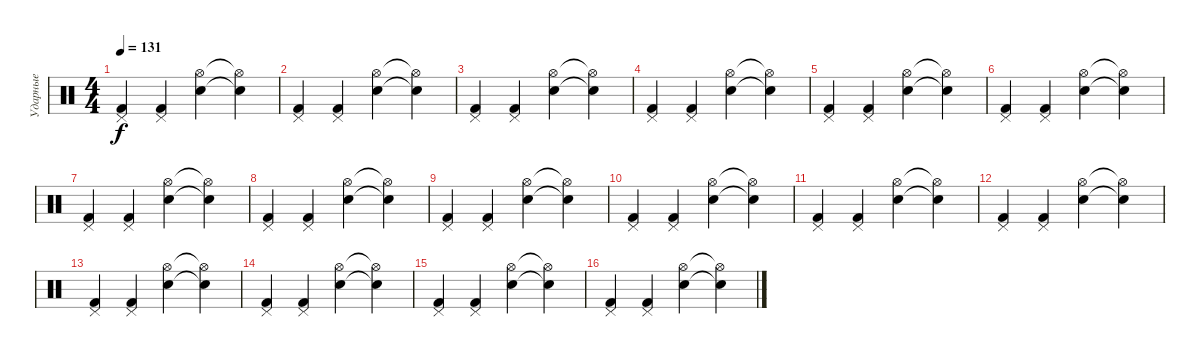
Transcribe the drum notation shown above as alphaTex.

\track ("Ударные" "Ударные") {instrument percussion}
\staff {score}
\articulation defaults
\ts (4 4)
\tempo 131
\clef neutral
\ks c
("Kick (hit) 2" "Pedal Hi-Hat (hit)").4{dy f} ("Kick (hit) 2" "Pedal Hi-Hat (hit)").4 ("Hi-Hat (open)" "Snare (hit) 2").4 ("Hi-Hat (open)"{t} "Snare (hit) 2"{t}).4 |
("Kick (hit) 2" "Pedal Hi-Hat (hit)").4 ("Kick (hit) 2" "Pedal Hi-Hat (hit)").4 ("Hi-Hat (open)" "Snare (hit) 2").4 ("Hi-Hat (open)"{t} "Snare (hit) 2"{t}).4 |
("Kick (hit) 2" "Pedal Hi-Hat (hit)").4 ("Kick (hit) 2" "Pedal Hi-Hat (hit)").4 ("Hi-Hat (open)" "Snare (hit) 2").4 ("Hi-Hat (open)"{t} "Snare (hit) 2"{t}).4 |
("Kick (hit) 2" "Pedal Hi-Hat (hit)").4 ("Kick (hit) 2" "Pedal Hi-Hat (hit)").4 ("Hi-Hat (open)" "Snare (hit) 2").4 ("Hi-Hat (open)"{t} "Snare (hit) 2"{t}).4 |
("Kick (hit) 2" "Pedal Hi-Hat (hit)").4 ("Kick (hit) 2" "Pedal Hi-Hat (hit)").4 ("Hi-Hat (open)" "Snare (hit) 2").4 ("Hi-Hat (open)"{t} "Snare (hit) 2"{t}).4 |
("Kick (hit) 2" "Pedal Hi-Hat (hit)").4 ("Kick (hit) 2" "Pedal Hi-Hat (hit)").4 ("Hi-Hat (open)" "Snare (hit) 2").4 ("Hi-Hat (open)"{t} "Snare (hit) 2"{t}).4 |
("Kick (hit) 2" "Pedal Hi-Hat (hit)").4 ("Kick (hit) 2" "Pedal Hi-Hat (hit)").4 ("Hi-Hat (open)" "Snare (hit) 2").4 ("Hi-Hat (open)"{t} "Snare (hit) 2"{t}).4 |
("Kick (hit) 2" "Pedal Hi-Hat (hit)").4 ("Kick (hit) 2" "Pedal Hi-Hat (hit)").4 ("Hi-Hat (open)" "Snare (hit) 2").4 ("Hi-Hat (open)"{t} "Snare (hit) 2"{t}).4 |
("Kick (hit) 2" "Pedal Hi-Hat (hit)").4 ("Kick (hit) 2" "Pedal Hi-Hat (hit)").4 ("Hi-Hat (open)" "Snare (hit) 2").4 ("Hi-Hat (open)"{t} "Snare (hit) 2"{t}).4 |
("Kick (hit) 2" "Pedal Hi-Hat (hit)").4 ("Kick (hit) 2" "Pedal Hi-Hat (hit)").4 ("Hi-Hat (open)" "Snare (hit) 2").4 ("Hi-Hat (open)"{t} "Snare (hit) 2"{t}).4 |
("Kick (hit) 2" "Pedal Hi-Hat (hit)").4 ("Kick (hit) 2" "Pedal Hi-Hat (hit)").4 ("Hi-Hat (open)" "Snare (hit) 2").4 ("Hi-Hat (open)"{t} "Snare (hit) 2"{t}).4 |
("Kick (hit) 2" "Pedal Hi-Hat (hit)").4 ("Kick (hit) 2" "Pedal Hi-Hat (hit)").4 ("Hi-Hat (open)" "Snare (hit) 2").4 ("Hi-Hat (open)"{t} "Snare (hit) 2"{t}).4 |
("Kick (hit) 2" "Pedal Hi-Hat (hit)").4 ("Kick (hit) 2" "Pedal Hi-Hat (hit)").4 ("Hi-Hat (open)" "Snare (hit) 2").4 ("Hi-Hat (open)"{t} "Snare (hit) 2"{t}).4 |
("Kick (hit) 2" "Pedal Hi-Hat (hit)").4 ("Kick (hit) 2" "Pedal Hi-Hat (hit)").4 ("Hi-Hat (open)" "Snare (hit) 2").4 ("Hi-Hat (open)"{t} "Snare (hit) 2"{t}).4 |
("Kick (hit) 2" "Pedal Hi-Hat (hit)").4 ("Kick (hit) 2" "Pedal Hi-Hat (hit)").4 ("Hi-Hat (open)" "Snare (hit) 2").4 ("Hi-Hat (open)"{t} "Snare (hit) 2"{t}).4 |
("Kick (hit) 2" "Pedal Hi-Hat (hit)").4 ("Kick (hit) 2" "Pedal Hi-Hat (hit)").4 ("Hi-Hat (open)" "Snare (hit) 2").4 ("Hi-Hat (open)"{t} "Snare (hit) 2"{t}).4
